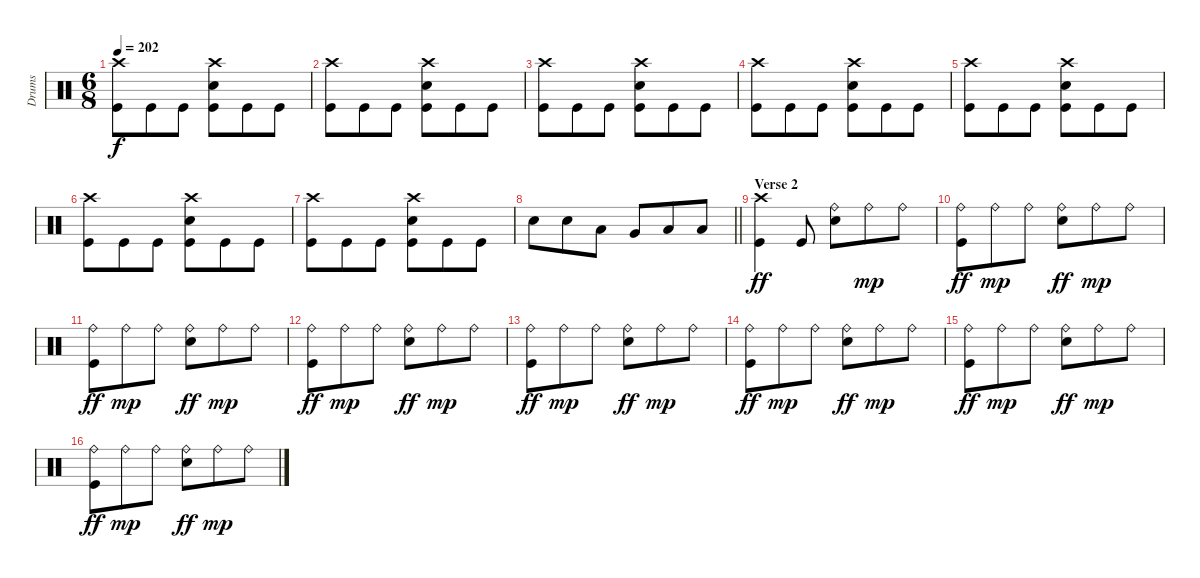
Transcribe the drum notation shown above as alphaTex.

\track ("Drums" "Drums") {instrument percussion}
\staff {score}
\articulation defaults
\ts (6 8)
\tempo 202
\clef neutral
\ks c
("Crash high (hit)" "Kick (hit)").8{dy f} "Kick (hit)".8 "Kick (hit)".8 ("Crash high (hit)" "Electric Snare (hit)" "Kick (hit)").8 "Kick (hit)".8 "Kick (hit)".8 |
("Crash high (hit)" "Kick (hit)").8 "Kick (hit)".8 "Kick (hit)".8 ("Crash high (hit)" "Electric Snare (hit)" "Kick (hit)").8 "Kick (hit)".8 "Kick (hit)".8 |
("Crash high (hit)" "Kick (hit)").8 "Kick (hit)".8 "Kick (hit)".8 ("Crash high (hit)" "Electric Snare (hit)" "Kick (hit)").8 "Kick (hit)".8 "Kick (hit)".8 |
("Crash high (hit)" "Kick (hit)").8 "Kick (hit)".8 "Kick (hit)".8 ("Crash high (hit)" "Electric Snare (hit)" "Kick (hit)").8 "Kick (hit)".8 "Kick (hit)".8 |
("Crash high (hit)" "Kick (hit)").8 "Kick (hit)".8 "Kick (hit)".8 ("Crash high (hit)" "Electric Snare (hit)" "Kick (hit)").8 "Kick (hit)".8 "Kick (hit)".8 |
("Crash high (hit)" "Kick (hit)").8 "Kick (hit)".8 "Kick (hit)".8 ("Crash high (hit)" "Electric Snare (hit)" "Kick (hit)").8 "Kick (hit)".8 "Kick (hit)".8 |
("Crash high (hit)" "Kick (hit)").8 "Kick (hit)".8 "Kick (hit)".8 ("Crash high (hit)" "Electric Snare (hit)" "Kick (hit)").8 "Kick (hit)".8 "Kick (hit)".8 |
\barLineRight lightlight "Electric Snare (hit)".8 "Electric Snare (hit)".8 "Low Tom (hit)".8 "Very Low Tom (hit)".8 "Low Floor Tom (hit)".8 "Low Floor Tom (hit)".8
|
\section ("" "Verse 2")
("Crash high (hit)" "Kick (hit)").4{dy ff} "Kick (hit)".8 ("Ride (bell)" "Electric Snare (hit)").8 "Ride (bell)".8{dy mp} "Ride (bell)".8 |
("Ride (bell)" "Kick (hit)").8{dy ff} "Ride (bell)".8{dy mp} "Ride (bell)".8 ("Ride (bell)" "Electric Snare (hit)").8{dy ff} "Ride (bell)".8{dy mp} "Ride (bell)".8 |
("Ride (bell)" "Kick (hit)").8{dy ff} "Ride (bell)".8{dy mp} "Ride (bell)".8 ("Ride (bell)" "Electric Snare (hit)").8{dy ff} "Ride (bell)".8{dy mp} "Ride (bell)".8 |
("Ride (bell)" "Kick (hit)").8{dy ff} "Ride (bell)".8{dy mp} "Ride (bell)".8 ("Ride (bell)" "Electric Snare (hit)").8{dy ff} "Ride (bell)".8{dy mp} "Ride (bell)".8 |
("Ride (bell)" "Kick (hit)").8{dy ff} "Ride (bell)".8{dy mp} "Ride (bell)".8 ("Ride (bell)" "Electric Snare (hit)").8{dy ff} "Ride (bell)".8{dy mp} "Ride (bell)".8 |
("Ride (bell)" "Kick (hit)").8{dy ff} "Ride (bell)".8{dy mp} "Ride (bell)".8 ("Ride (bell)" "Electric Snare (hit)").8{dy ff} "Ride (bell)".8{dy mp} "Ride (bell)".8 |
("Ride (bell)" "Kick (hit)").8{dy ff} "Ride (bell)".8{dy mp} "Ride (bell)".8 ("Ride (bell)" "Electric Snare (hit)").8{dy ff} "Ride (bell)".8{dy mp} "Ride (bell)".8 |
("Ride (bell)" "Kick (hit)").8{dy ff} "Ride (bell)".8{dy mp} "Ride (bell)".8 ("Ride (bell)" "Electric Snare (hit)").8{dy ff} "Ride (bell)".8{dy mp} "Ride (bell)".8
